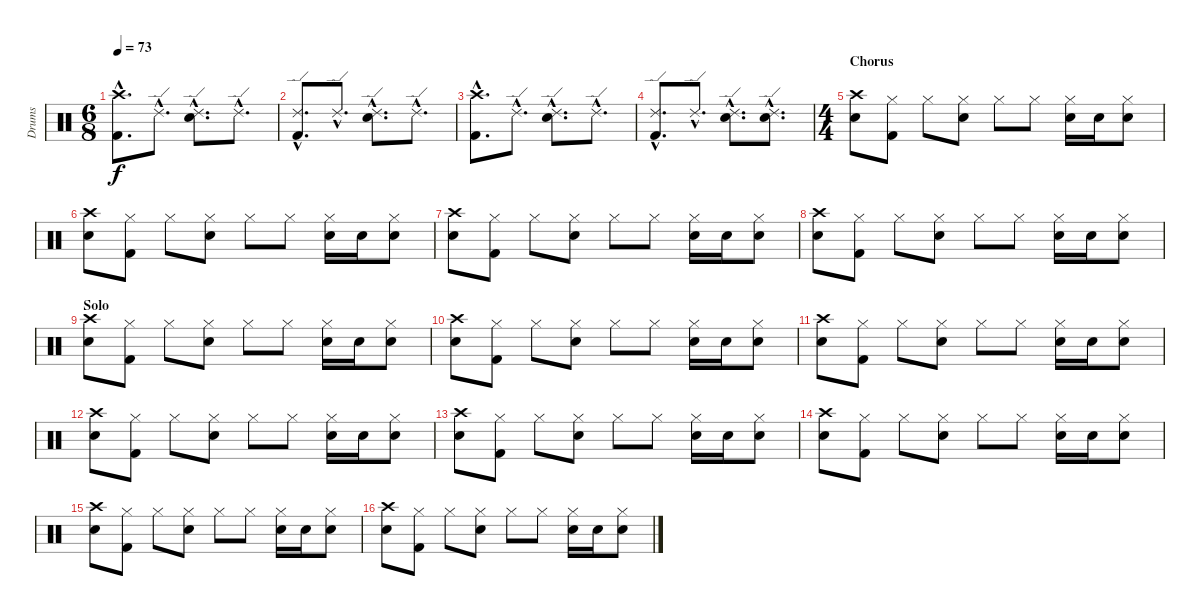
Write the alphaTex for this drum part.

\track ("Drums" "Drums") {instrument percussion}
\staff {score}
\articulation defaults
\ts (6 8)
\tempo 73
\clef neutral
\ks c
("Crash high (hit)"{hac} "Kick (hit) 2"{hac}).8{d dy f} "Ride (edge) 2"{hac}.8{d} ("Ride (edge) 2"{hac} "Electric Snare (hit)"{hac}).8{d} "Ride (edge) 2"{hac}.8{d} |
("Ride (edge) 2"{hac} "Kick (hit) 2"{hac}).8{d} "Ride (edge) 2"{hac}.8{d} ("Ride (edge) 2"{hac} "Electric Snare (hit)"{hac}).8{d} "Ride (edge) 2"{hac}.8{d} |
("Crash high (hit)"{hac} "Kick (hit) 2"{hac}).8{d} "Ride (edge) 2"{hac}.8{d} ("Ride (edge) 2"{hac} "Electric Snare (hit)"{hac}).8{d} "Ride (edge) 2"{hac}.8{d} |
("Ride (edge) 2"{hac} "Kick (hit) 2"{hac}).8{d} "Ride (edge) 2"{hac}.8{d} ("Ride (edge) 2"{hac} "Electric Snare (hit)"{hac}).8{d} ("Ride (edge) 2"{hac} "Snare (hit) 2"{hac}).8{d} |
\ts (4 4)
\section ("" "Chorus")
("Crash high (hit)" "Snare (hit) 2").8 ("Hi-Hat (closed)" "Kick (hit) 2").8 "Hi-Hat (closed)".8 ("Hi-Hat (closed)" "Snare (hit) 2").8 "Hi-Hat (closed)".8 "Hi-Hat (closed)".8 ("Hi-Hat (closed)" "Electric Snare (hit)").16 "Electric Snare (hit)".16 ("Hi-Hat (closed)" "Electric Snare (hit)").8 |
("Crash high (hit)" "Snare (hit) 2").8 ("Hi-Hat (closed)" "Kick (hit) 2").8 "Hi-Hat (closed)".8 ("Hi-Hat (closed)" "Snare (hit) 2").8 "Hi-Hat (closed)".8 "Hi-Hat (closed)".8 ("Hi-Hat (closed)" "Electric Snare (hit)").16 "Electric Snare (hit)".16 ("Hi-Hat (closed)" "Electric Snare (hit)").8 |
("Crash high (hit)" "Snare (hit) 2").8 ("Hi-Hat (closed)" "Kick (hit) 2").8 "Hi-Hat (closed)".8 ("Hi-Hat (closed)" "Snare (hit) 2").8 "Hi-Hat (closed)".8 "Hi-Hat (closed)".8 ("Hi-Hat (closed)" "Electric Snare (hit)").16 "Electric Snare (hit)".16 ("Hi-Hat (closed)" "Electric Snare (hit)").8 |
("Crash high (hit)" "Snare (hit) 2").8 ("Hi-Hat (closed)" "Kick (hit) 2").8 "Hi-Hat (closed)".8 ("Hi-Hat (closed)" "Snare (hit) 2").8 "Hi-Hat (closed)".8 "Hi-Hat (closed)".8 ("Hi-Hat (closed)" "Electric Snare (hit)").16 "Electric Snare (hit)".16 ("Hi-Hat (closed)" "Electric Snare (hit)").8 |
\section ("" "Solo")
("Crash high (hit)" "Snare (hit) 2").8 ("Hi-Hat (closed)" "Kick (hit) 2").8 "Hi-Hat (closed)".8 ("Hi-Hat (closed)" "Snare (hit) 2").8 "Hi-Hat (closed)".8 "Hi-Hat (closed)".8 ("Hi-Hat (closed)" "Electric Snare (hit)").16 "Electric Snare (hit)".16 ("Hi-Hat (closed)" "Electric Snare (hit)").8 |
("Crash high (hit)" "Snare (hit) 2").8 ("Hi-Hat (closed)" "Kick (hit) 2").8 "Hi-Hat (closed)".8 ("Hi-Hat (closed)" "Snare (hit) 2").8 "Hi-Hat (closed)".8 "Hi-Hat (closed)".8 ("Hi-Hat (closed)" "Electric Snare (hit)").16 "Electric Snare (hit)".16 ("Hi-Hat (closed)" "Electric Snare (hit)").8 |
("Crash high (hit)" "Snare (hit) 2").8 ("Hi-Hat (closed)" "Kick (hit) 2").8 "Hi-Hat (closed)".8 ("Hi-Hat (closed)" "Snare (hit) 2").8 "Hi-Hat (closed)".8 "Hi-Hat (closed)".8 ("Hi-Hat (closed)" "Electric Snare (hit)").16 "Electric Snare (hit)".16 ("Hi-Hat (closed)" "Electric Snare (hit)").8 |
("Crash high (hit)" "Snare (hit) 2").8 ("Hi-Hat (closed)" "Kick (hit) 2").8 "Hi-Hat (closed)".8 ("Hi-Hat (closed)" "Snare (hit) 2").8 "Hi-Hat (closed)".8 "Hi-Hat (closed)".8 ("Hi-Hat (closed)" "Electric Snare (hit)").16 "Electric Snare (hit)".16 ("Hi-Hat (closed)" "Electric Snare (hit)").8 |
("Crash high (hit)" "Snare (hit) 2").8 ("Hi-Hat (closed)" "Kick (hit) 2").8 "Hi-Hat (closed)".8 ("Hi-Hat (closed)" "Snare (hit) 2").8 "Hi-Hat (closed)".8 "Hi-Hat (closed)".8 ("Hi-Hat (closed)" "Electric Snare (hit)").16 "Electric Snare (hit)".16 ("Hi-Hat (closed)" "Electric Snare (hit)").8 |
("Crash high (hit)" "Snare (hit) 2").8 ("Hi-Hat (closed)" "Kick (hit) 2").8 "Hi-Hat (closed)".8 ("Hi-Hat (closed)" "Snare (hit) 2").8 "Hi-Hat (closed)".8 "Hi-Hat (closed)".8 ("Hi-Hat (closed)" "Electric Snare (hit)").16 "Electric Snare (hit)".16 ("Hi-Hat (closed)" "Electric Snare (hit)").8 |
("Crash high (hit)" "Snare (hit) 2").8 ("Hi-Hat (closed)" "Kick (hit) 2").8 "Hi-Hat (closed)".8 ("Hi-Hat (closed)" "Snare (hit) 2").8 "Hi-Hat (closed)".8 "Hi-Hat (closed)".8 ("Hi-Hat (closed)" "Electric Snare (hit)").16 "Electric Snare (hit)".16 ("Hi-Hat (closed)" "Electric Snare (hit)").8 |
("Crash high (hit)" "Snare (hit) 2").8 ("Hi-Hat (closed)" "Kick (hit) 2").8 "Hi-Hat (closed)".8 ("Hi-Hat (closed)" "Snare (hit) 2").8 "Hi-Hat (closed)".8 "Hi-Hat (closed)".8 ("Hi-Hat (closed)" "Electric Snare (hit)").16 "Electric Snare (hit)".16 ("Hi-Hat (closed)" "Electric Snare (hit)").8
